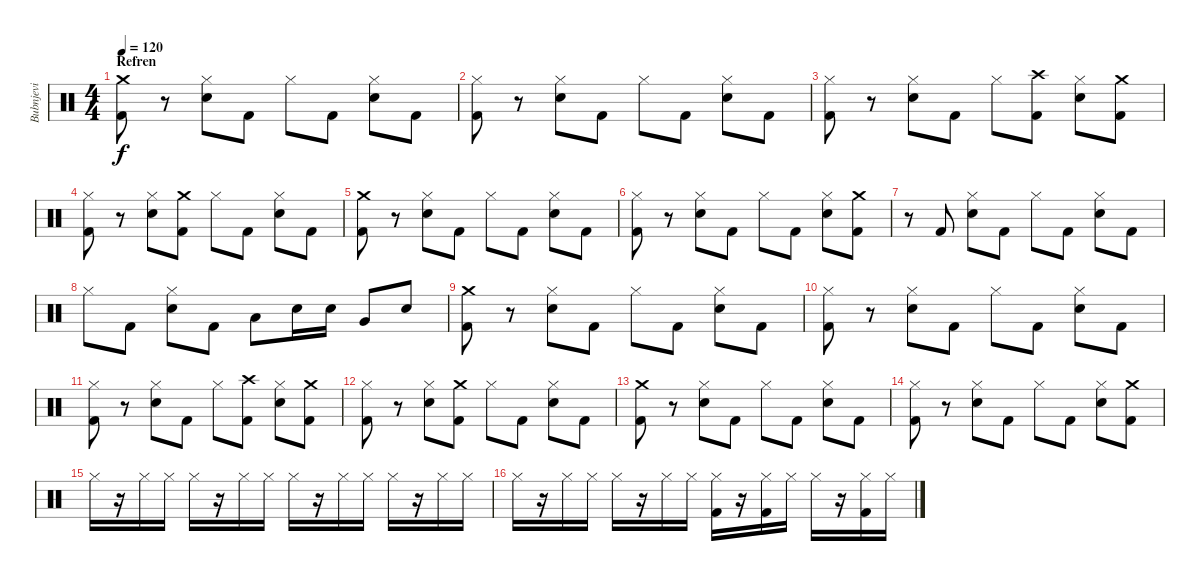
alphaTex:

\track ("Bubnjevi" "Bubnjevi") {instrument percussion}
\staff {score}
\articulation defaults
\ts (4 4)
\section ("" "Refren")
\tempo 120
\clef neutral
\ks c
("Crash medium (hit)" "Kick (hit) 2").8{dy f} r.8 ("Electric Snare (hit)" "Hi-Hat (closed)").8 "Kick (hit) 2".8 "Hi-Hat (closed)".8 "Kick (hit) 2".8 ("Electric Snare (hit)" "Hi-Hat (closed)").8 "Kick (hit) 2".8 |
("Hi-Hat (closed)" "Kick (hit) 2").8 r.8 ("Electric Snare (hit)" "Hi-Hat (closed)").8 "Kick (hit) 2".8 "Hi-Hat (closed)".8 "Kick (hit) 2".8 ("Electric Snare (hit)" "Hi-Hat (closed)").8 "Kick (hit) 2".8 |
("Hi-Hat (closed)" "Kick (hit) 2").8 r.8 ("Electric Snare (hit)" "Hi-Hat (closed)").8 "Kick (hit) 2".8 "Hi-Hat (closed)".8 ("Crash high (hit)" "Kick (hit) 2").8 ("Electric Snare (hit)" "Hi-Hat (closed)").8 ("Crash medium (hit)" "Kick (hit) 2").8 |
("Hi-Hat (closed)" "Kick (hit) 2").8 r.8 ("Electric Snare (hit)" "Hi-Hat (closed)").8 ("Crash medium (hit)" "Kick (hit) 2").8 "Hi-Hat (closed)".8 "Kick (hit) 2".8 ("Electric Snare (hit)" "Hi-Hat (closed)").8 "Kick (hit) 2".8 |
("Crash medium (hit)" "Kick (hit) 2").8 r.8 ("Electric Snare (hit)" "Hi-Hat (closed)").8 "Kick (hit) 2".8 "Hi-Hat (closed)".8 "Kick (hit) 2".8 ("Electric Snare (hit)" "Hi-Hat (closed)").8 "Kick (hit) 2".8 |
("Hi-Hat (closed)" "Kick (hit) 2").8 r.8 ("Electric Snare (hit)" "Hi-Hat (closed)").8 "Kick (hit) 2".8 "Hi-Hat (closed)".8 "Kick (hit) 2".8 ("Electric Snare (hit)" "Hi-Hat (closed)").8 ("Crash medium (hit)" "Kick (hit) 2").8 |
r.8 "Kick (hit) 2".8 ("Electric Snare (hit)" "Hi-Hat (closed)").8 "Kick (hit) 2".8 "Hi-Hat (closed)".8 "Kick (hit) 2".8 ("Electric Snare (hit)" "Hi-Hat (closed)").8 "Kick (hit) 2".8 |
"Hi-Hat (closed)".8 "Kick (hit) 2".8 ("Electric Snare (hit)" "Hi-Hat (closed)").8 "Kick (hit) 2".8 "Low Tom (hit)".8 "Electric Snare (hit)".16 "Electric Snare (hit)".16 "Very Low Tom (hit)".8 "Electric Snare (hit)".8 |
("Crash medium (hit)" "Kick (hit) 2").8 r.8 ("Electric Snare (hit)" "Hi-Hat (closed)").8 "Kick (hit) 2".8 "Hi-Hat (closed)".8 "Kick (hit) 2".8 ("Electric Snare (hit)" "Hi-Hat (closed)").8 "Kick (hit) 2".8 |
("Hi-Hat (closed)" "Kick (hit) 2").8 r.8 ("Electric Snare (hit)" "Hi-Hat (closed)").8 "Kick (hit) 2".8 "Hi-Hat (closed)".8 "Kick (hit) 2".8 ("Electric Snare (hit)" "Hi-Hat (closed)").8 "Kick (hit) 2".8 |
("Hi-Hat (closed)" "Kick (hit) 2").8 r.8 ("Electric Snare (hit)" "Hi-Hat (closed)").8 "Kick (hit) 2".8 "Hi-Hat (closed)".8 ("Crash high (hit)" "Kick (hit) 2").8 ("Electric Snare (hit)" "Hi-Hat (closed)").8 ("Crash medium (hit)" "Kick (hit) 2").8 |
("Hi-Hat (closed)" "Kick (hit) 2").8 r.8 ("Electric Snare (hit)" "Hi-Hat (closed)").8 ("Crash medium (hit)" "Kick (hit) 2").8 "Hi-Hat (closed)".8 "Kick (hit) 2".8 ("Electric Snare (hit)" "Hi-Hat (closed)").8 "Kick (hit) 2".8 |
("Crash medium (hit)" "Kick (hit) 2").8 r.8 ("Electric Snare (hit)" "Hi-Hat (closed)").8 "Kick (hit) 2".8 "Hi-Hat (closed)".8 "Kick (hit) 2".8 ("Electric Snare (hit)" "Hi-Hat (closed)").8 "Kick (hit) 2".8 |
("Hi-Hat (closed)" "Kick (hit) 2").8 r.8 ("Electric Snare (hit)" "Hi-Hat (closed)").8 "Kick (hit) 2".8 "Hi-Hat (closed)".8 "Kick (hit) 2".8 ("Electric Snare (hit)" "Hi-Hat (closed)").8 ("Crash medium (hit)" "Kick (hit) 2").8 |
"Hi-Hat (closed)".16 r.16 "Hi-Hat (closed)".16 "Hi-Hat (closed)".16 "Hi-Hat (closed)".16 r.16 "Hi-Hat (closed)".16 "Hi-Hat (closed)".16 "Hi-Hat (closed)".16 r.16 "Hi-Hat (closed)".16 "Hi-Hat (closed)".16 "Hi-Hat (closed)".16 r.16 "Hi-Hat (closed)".16 "Hi-Hat (closed)".16 |
"Hi-Hat (closed)".16 r.16 "Hi-Hat (closed)".16 "Hi-Hat (closed)".16 "Hi-Hat (closed)".16 r.16 "Hi-Hat (closed)".16 "Hi-Hat (closed)".16 ("Hi-Hat (closed)" "Kick (hit) 2").16 r.16 ("Hi-Hat (closed)" "Kick (hit) 2").16 "Hi-Hat (closed)".16 "Hi-Hat (closed)".16 r.16 ("Hi-Hat (closed)" "Kick (hit) 2").16 "Hi-Hat (closed)".16
